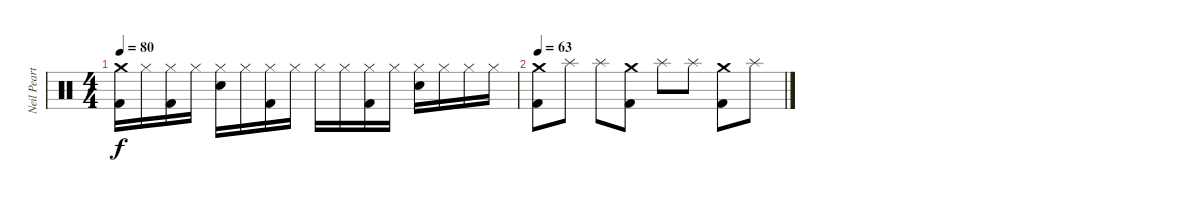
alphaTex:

\track ("Neil Peart" "Neil Peart") {instrument percussion}
\staff {score}
\articulation defaults
\ts (4 4)
\tempo 80
\clef neutral
\ks c
("Crash medium (hit)" "Kick (hit) 2").16{dy f} "Hi-Hat (closed)".16 ("Hi-Hat (closed)" "Kick (hit) 2").16 "Hi-Hat (closed)".16 ("Hi-Hat (closed)" "Electric Snare (hit)").16 "Hi-Hat (closed)".16 ("Hi-Hat (closed)" "Kick (hit) 2").16 "Hi-Hat (closed)".16 "Hi-Hat (closed)".16 "Hi-Hat (closed)".16 ("Hi-Hat (closed)" "Kick (hit) 2").16 "Hi-Hat (closed)".16 ("Hi-Hat (closed)" "Electric Snare (hit)").16 "Hi-Hat (closed)".16 "Hi-Hat (closed)".16 "Hi-Hat (closed)".16 |
\tempo 63
("Crash medium (hit)" "Kick (hit) 2").8 "Splash (hit)".8 "Splash (hit)".8 ("Crash medium (hit)" "Kick (hit) 2").8 "Splash (hit)".8 "Splash (hit)".8 ("Crash medium (hit)" "Kick (hit) 2").8 "Splash (hit)".8
